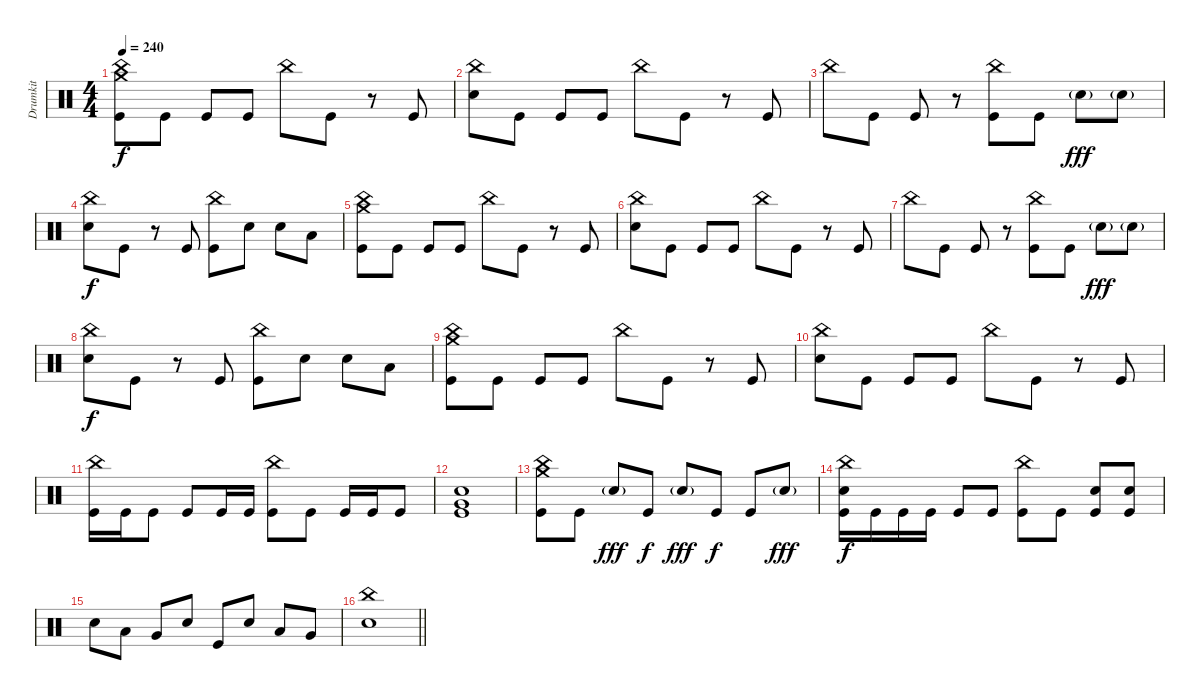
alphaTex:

\track ("Drumkit" "Drumkit") {instrument percussion}
\staff {score}
\articulation defaults
\ts (4 4)
\tempo 240
\clef neutral
\ks c
("Crash medium (hit)" "China (hit)" "Kick (hit)").8{dy f} "Kick (hit)".8 "Kick (hit)".8 "Kick (hit)".8 "China (hit)".8 "Kick (hit)".8 r.8 "Kick (hit)".8 |
("China (hit)" "Snare (hit) 2").8 "Kick (hit)".8 "Kick (hit)".8 "Kick (hit)".8 "China (hit)".8 "Kick (hit)".8 r.8 "Kick (hit)".8 |
"China (hit)".8 "Kick (hit)".8 "Kick (hit)".8 r.8 ("China (hit)" "Kick (hit)").8 "Kick (hit)".8 "Snare (hit) 2"{g}.8{dy fff} "Snare (hit) 2"{g}.8 |
("China (hit)" "Snare (hit) 2").8{dy f} "Kick (hit)".8 r.8 "Kick (hit)".8 ("China (hit)" "Kick (hit)").8 "Snare (hit) 2".8 "Snare (hit) 2".8 "Low Tom (hit)".8 |
("Crash medium (hit)" "China (hit)" "Kick (hit)").8 "Kick (hit)".8 "Kick (hit)".8 "Kick (hit)".8 "China (hit)".8 "Kick (hit)".8 r.8 "Kick (hit)".8 |
("China (hit)" "Snare (hit) 2").8 "Kick (hit)".8 "Kick (hit)".8 "Kick (hit)".8 "China (hit)".8 "Kick (hit)".8 r.8 "Kick (hit)".8 |
"China (hit)".8 "Kick (hit)".8 "Kick (hit)".8 r.8 ("China (hit)" "Kick (hit)").8 "Kick (hit)".8 "Snare (hit) 2"{g}.8{dy fff} "Snare (hit) 2"{g}.8 |
("China (hit)" "Snare (hit) 2").8{dy f} "Kick (hit)".8 r.8 "Kick (hit)".8 ("China (hit)" "Kick (hit)").8 "Snare (hit) 2".8 "Snare (hit) 2".8 "Low Tom (hit)".8 |
("Crash medium (hit)" "China (hit)" "Kick (hit)").8 "Kick (hit)".8 "Kick (hit)".8 "Kick (hit)".8 "China (hit)".8 "Kick (hit)".8 r.8 "Kick (hit)".8 |
("China (hit)" "Snare (hit) 2").8 "Kick (hit)".8 "Kick (hit)".8 "Kick (hit)".8 "China (hit)".8 "Kick (hit)".8 r.8 "Kick (hit)".8 |
("China (hit)" "Kick (hit)").16 "Kick (hit)".16 "Kick (hit)".8 "Kick (hit)".8 "Kick (hit)".16 "Kick (hit)".16 ("China (hit)" "Kick (hit)").8 "Kick (hit)".8 "Kick (hit)".16 "Kick (hit)".16 "Kick (hit)".8 |
("Very Low Tom (hit)" "Snare (hit) 2" "Kick (hit)").1 |
("China (hit)" "Crash medium (hit)" "Kick (hit)").8 "Kick (hit)".8 "Snare (hit) 2"{g}.8{dy fff} "Kick (hit)".8{dy f} "Snare (hit) 2"{g}.8{dy fff} "Kick (hit)".8{dy f} "Kick (hit)".8 "Snare (hit) 2"{g}.8{dy fff} |
("China (hit)" "Snare (hit) 2" "Kick (hit)").16{dy f} "Kick (hit)".16 "Kick (hit)".16 "Kick (hit)".16 "Kick (hit)".8 "Kick (hit)".8 ("China (hit)" "Kick (hit)").8 "Kick (hit)".8 ("Snare (hit) 2" "Kick (hit)").8 ("Snare (hit) 2" "Kick (hit)").8 |
"Snare (hit) 2".8 "Low Tom (hit)".8 "Very Low Tom (hit)".8 "Snare (hit) 2".8 "Kick (hit)".8 "Snare (hit) 2".8 "Low Tom (hit)".8 "Very Low Tom (hit)".8 |
\barLineRight lightlight
("China (hit)" "Snare (hit) 2").1
